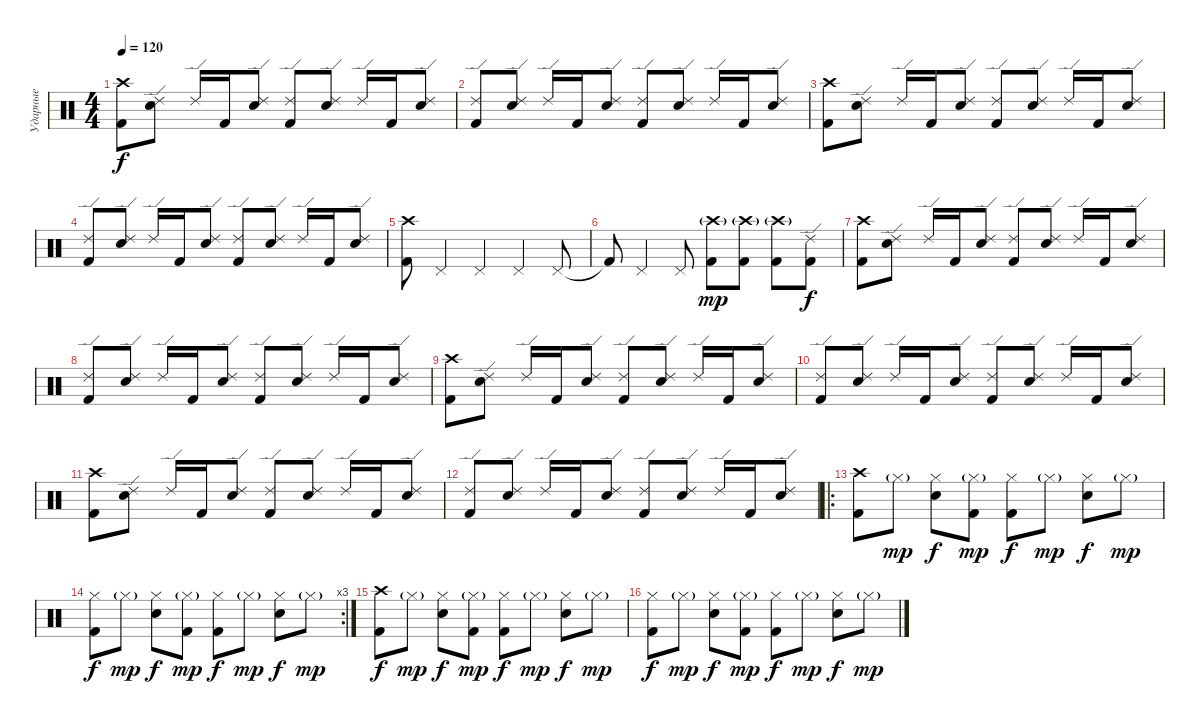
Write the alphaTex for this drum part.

\track ("Ударные" "Ударные") {instrument percussion}
\staff {score}
\articulation defaults
\ts (4 4)
\tempo 120
\clef neutral
\ks c
("Kick (hit) 2" "Crash high (hit)").8{dy f} ("Electric Snare (hit)" "Ride (edge) 2").8 "Ride (edge) 2".16 "Kick (hit) 2".16 ("Electric Snare (hit)" "Ride (edge) 2").8 ("Kick (hit) 2" "Ride (edge) 2").8 ("Electric Snare (hit)" "Ride (edge) 2").8 "Ride (edge) 2".16 "Kick (hit) 2".16 ("Electric Snare (hit)" "Ride (edge) 2").8 |
("Kick (hit) 2" "Ride (edge) 2").8 ("Electric Snare (hit)" "Ride (edge) 2").8 "Ride (edge) 2".16 "Kick (hit) 2".16 ("Electric Snare (hit)" "Ride (edge) 2").8 ("Kick (hit) 2" "Ride (edge) 2").8 ("Electric Snare (hit)" "Ride (edge) 2").8 "Ride (edge) 2".16 "Kick (hit) 2".16 ("Electric Snare (hit)" "Ride (edge) 2").8 |
("Kick (hit) 2" "Crash high (hit)").8 ("Electric Snare (hit)" "Ride (edge) 2").8 "Ride (edge) 2".16 "Kick (hit) 2".16 ("Electric Snare (hit)" "Ride (edge) 2").8 ("Kick (hit) 2" "Ride (edge) 2").8 ("Electric Snare (hit)" "Ride (edge) 2").8 "Ride (edge) 2".16 "Kick (hit) 2".16 ("Electric Snare (hit)" "Ride (edge) 2").8 |
("Kick (hit) 2" "Ride (edge) 2").8 ("Electric Snare (hit)" "Ride (edge) 2").8 "Ride (edge) 2".16 "Kick (hit) 2".16 ("Electric Snare (hit)" "Ride (edge) 2").8 ("Kick (hit) 2" "Ride (edge) 2").8 ("Electric Snare (hit)" "Ride (edge) 2").8 "Ride (edge) 2".16 "Kick (hit) 2".16 ("Electric Snare (hit)" "Ride (edge) 2").8 |
("Kick (hit) 2" "Crash high (hit)").8 "Pedal Hi-Hat (hit)".4 "Pedal Hi-Hat (hit)".4 "Pedal Hi-Hat (hit)".4 "Pedal Hi-Hat (hit)".8 |
"Kick (hit) 2"{t}.8 "Pedal Hi-Hat (hit)".4 "Pedal Hi-Hat (hit)".8 ("Kick (hit) 2" "Crash high (hit)"{g}).8{dy mp} ("Kick (hit) 2" "Crash high (hit)"{g}).8 ("Kick (hit) 2" "Crash high (hit)"{g}).8 ("Kick (hit) 2" "Ride (edge) 2").8{dy f} |
("Kick (hit) 2" "Crash high (hit)").8 ("Electric Snare (hit)" "Ride (edge) 2").8 "Ride (edge) 2".16 "Kick (hit) 2".16 ("Electric Snare (hit)" "Ride (edge) 2").8 ("Kick (hit) 2" "Ride (edge) 2").8 ("Electric Snare (hit)" "Ride (edge) 2").8 "Ride (edge) 2".16 "Kick (hit) 2".16 ("Electric Snare (hit)" "Ride (edge) 2").8 |
("Kick (hit) 2" "Ride (edge) 2").8 ("Electric Snare (hit)" "Ride (edge) 2").8 "Ride (edge) 2".16 "Kick (hit) 2".16 ("Electric Snare (hit)" "Ride (edge) 2").8 ("Kick (hit) 2" "Ride (edge) 2").8 ("Electric Snare (hit)" "Ride (edge) 2").8 "Ride (edge) 2".16 "Kick (hit) 2".16 ("Electric Snare (hit)" "Ride (edge) 2").8 |
("Kick (hit) 2" "Crash high (hit)").8 ("Electric Snare (hit)" "Ride (edge) 2").8 "Ride (edge) 2".16 "Kick (hit) 2".16 ("Electric Snare (hit)" "Ride (edge) 2").8 ("Kick (hit) 2" "Ride (edge) 2").8 ("Electric Snare (hit)" "Ride (edge) 2").8 "Ride (edge) 2".16 "Kick (hit) 2".16 ("Electric Snare (hit)" "Ride (edge) 2").8 |
("Kick (hit) 2" "Ride (edge) 2").8 ("Electric Snare (hit)" "Ride (edge) 2").8 "Ride (edge) 2".16 "Kick (hit) 2".16 ("Electric Snare (hit)" "Ride (edge) 2").8 ("Kick (hit) 2" "Ride (edge) 2").8 ("Electric Snare (hit)" "Ride (edge) 2").8 "Ride (edge) 2".16 "Kick (hit) 2".16 ("Electric Snare (hit)" "Ride (edge) 2").8 |
("Kick (hit) 2" "Crash high (hit)").8 ("Electric Snare (hit)" "Ride (edge) 2").8 "Ride (edge) 2".16 "Kick (hit) 2".16 ("Electric Snare (hit)" "Ride (edge) 2").8 ("Kick (hit) 2" "Ride (edge) 2").8 ("Electric Snare (hit)" "Ride (edge) 2").8 "Ride (edge) 2".16 "Kick (hit) 2".16 ("Electric Snare (hit)" "Ride (edge) 2").8 |
("Kick (hit) 2" "Ride (edge) 2").8 ("Electric Snare (hit)" "Ride (edge) 2").8 "Ride (edge) 2".16 "Kick (hit) 2".16 ("Electric Snare (hit)" "Ride (edge) 2").8 ("Kick (hit) 2" "Ride (edge) 2").8 ("Electric Snare (hit)" "Ride (edge) 2").8 "Ride (edge) 2".16 "Kick (hit) 2".16 ("Electric Snare (hit)" "Ride (edge) 2").8 |
\ro
("Kick (hit) 2" "Crash high (hit)").8 "Hi-Hat (closed)"{g}.8{dy mp} ("Electric Snare (hit)" "Hi-Hat (closed)").8{dy f} ("Kick (hit) 2" "Hi-Hat (closed)"{g}).8{dy mp} ("Kick (hit) 2" "Hi-Hat (closed)").8{dy f} "Hi-Hat (closed)"{g}.8{dy mp} ("Electric Snare (hit)" "Hi-Hat (closed)").8{dy f} "Hi-Hat (closed)"{g}.8{dy mp} |
\rc 3
("Kick (hit) 2" "Hi-Hat (closed)").8{dy f} "Hi-Hat (closed)"{g}.8{dy mp} ("Electric Snare (hit)" "Hi-Hat (closed)").8{dy f} ("Kick (hit) 2" "Hi-Hat (closed)"{g}).8{dy mp} ("Kick (hit) 2" "Hi-Hat (closed)").8{dy f} "Hi-Hat (closed)"{g}.8{dy mp} ("Electric Snare (hit)" "Hi-Hat (closed)").8{dy f} "Hi-Hat (closed)"{g}.8{dy mp} |
("Kick (hit) 2" "Crash high (hit)").8{dy f} "Hi-Hat (closed)"{g}.8{dy mp} ("Electric Snare (hit)" "Hi-Hat (closed)").8{dy f} ("Kick (hit) 2" "Hi-Hat (closed)"{g}).8{dy mp} ("Kick (hit) 2" "Hi-Hat (closed)").8{dy f} "Hi-Hat (closed)"{g}.8{dy mp} ("Electric Snare (hit)" "Hi-Hat (closed)").8{dy f} "Hi-Hat (closed)"{g}.8{dy mp} |
("Kick (hit) 2" "Hi-Hat (closed)").8{dy f} "Hi-Hat (closed)"{g}.8{dy mp} ("Electric Snare (hit)" "Hi-Hat (closed)").8{dy f} ("Kick (hit) 2" "Hi-Hat (closed)"{g}).8{dy mp} ("Kick (hit) 2" "Hi-Hat (closed)").8{dy f} "Hi-Hat (closed)"{g}.8{dy mp} ("Electric Snare (hit)" "Hi-Hat (closed)").8{dy f} "Hi-Hat (closed)"{g}.8{dy mp}
